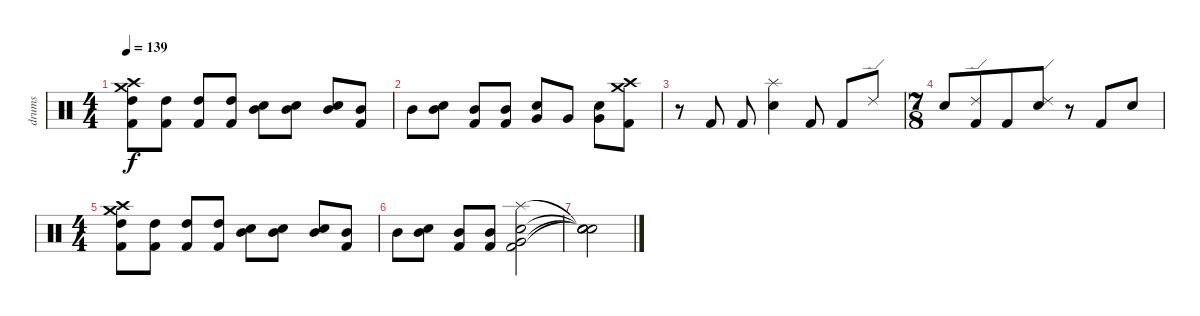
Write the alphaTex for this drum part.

\track ("drums" "drums") {instrument percussion}
\staff {score}
\articulation defaults
\ts (4 4)
\tempo 139
\clef neutral
\ks c
("Crash medium (hit)" "Crash high (hit)" "High Tom (hit)" "Kick (hit) 2").8{dy f} ("High Tom (hit)" "Kick (hit) 2").8 ("High Tom (hit)" "Kick (hit) 2").8 ("High Tom (hit)" "Kick (hit) 2").8 ("Mid Tom (hit)" "Electric Snare (hit)").8 ("Mid Tom (hit)" "Electric Snare (hit)").8 ("Mid Tom (hit)" "Electric Snare (hit)").8 ("Mid Tom (hit)" "Kick (hit) 2").8 |
"Mid Tom (hit)".8 ("Mid Tom (hit)" "Electric Snare (hit)").8 ("Mid Tom (hit)" "Kick (hit) 2").8 ("Mid Tom (hit)" "Kick (hit) 2").8 ("Very Low Tom (hit)" "Electric Snare (hit)").8 "Very Low Tom (hit)".8 ("Very Low Tom (hit)" "Electric Snare (hit)").8 ("Crash medium (hit)" "Crash high (hit)" "Kick (hit) 2").8 |
r.8 "Kick (hit) 2".8 "Kick (hit) 2".8 ("Splash (hit)" "Electric Snare (hit)").4 "Kick (hit) 2".8 "Kick (hit) 2".8 "Ride (edge) 2".8 |
\ts (7 8)
"Electric Snare (hit)".8 ("Ride (edge) 2" "Kick (hit) 2").8 "Kick (hit) 2".8 ("Ride (edge) 2" "Electric Snare (hit)").8 r.8 "Kick (hit) 2".8 "Electric Snare (hit)".8 |
\ts (4 4)
("Crash medium (hit)" "Crash high (hit)" "High Tom (hit)" "Kick (hit) 2").8 ("High Tom (hit)" "Kick (hit) 2").8 ("High Tom (hit)" "Kick (hit) 2").8 ("High Tom (hit)" "Kick (hit) 2").8 ("Mid Tom (hit)" "Electric Snare (hit)").8 ("Mid Tom (hit)" "Electric Snare (hit)").8 ("Mid Tom (hit)" "Electric Snare (hit)").8 ("Mid Tom (hit)" "Kick (hit) 2").8 |
"Mid Tom (hit)".8 ("Mid Tom (hit)" "Electric Snare (hit)").8 ("Mid Tom (hit)" "Kick (hit) 2").8 ("Mid Tom (hit)" "Kick (hit) 2").8 ("Splash (hit)" "Very Low Tom (hit)" "Electric Snare (hit)" "Kick (hit) 2").2 |
("Snare (hit)"{t} "Snare (hit)"{t} "Snare (hit)"{t} "Snare (hit)"{t}).2
